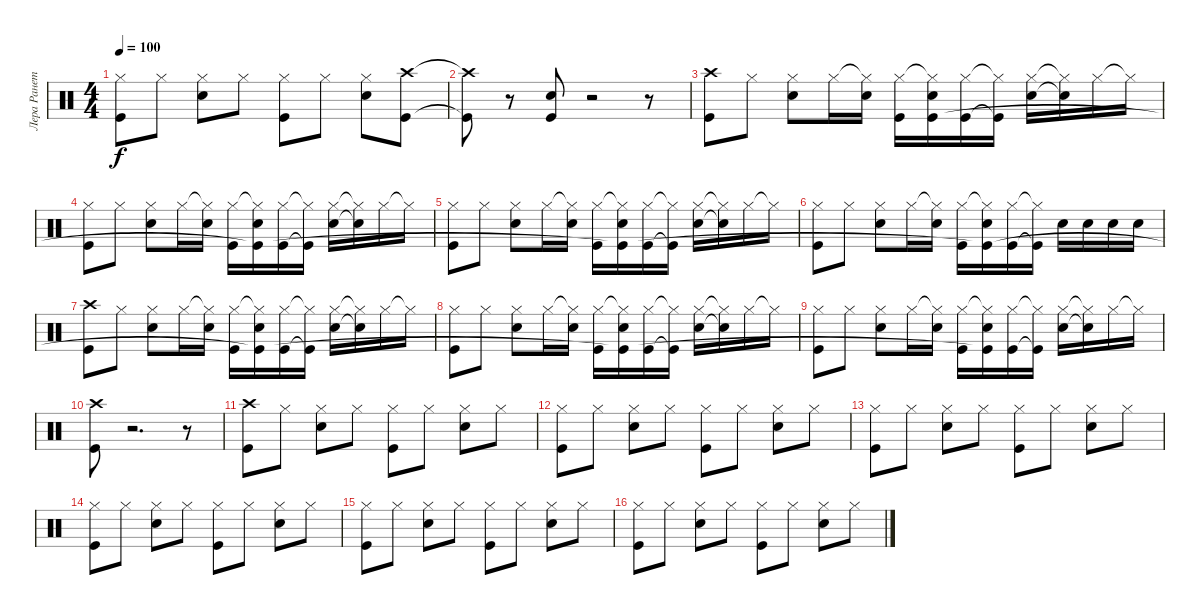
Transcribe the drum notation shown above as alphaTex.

\track ("Лера Ранетка" "Лера Ранет") {instrument percussion}
\staff {score}
\articulation defaults
\ts (4 4)
\tempo 100
\clef neutral
\ks c
("Hi-Hat (closed)" "Kick (hit)").8{dy f} "Hi-Hat (closed)".8 ("Hi-Hat (closed)" "Electric Snare (hit)").8 "Hi-Hat (closed)".8 ("Hi-Hat (closed)" "Kick (hit)").8 "Hi-Hat (closed)".8 ("Hi-Hat (closed)" "Electric Snare (hit)").8 ("Crash high (hit)" "Kick (hit)").8 |
("Crash high (hit)"{t} "Kick (hit)"{t}).8 r.8 ("Electric Snare (hit)" "Kick (hit)").8 r.2 r.8 |
("Crash high (hit)" "Kick (hit)").8 "Hi-Hat (closed)".8 ("Hi-Hat (closed)" "Electric Snare (hit)").8 "Hi-Hat (closed)".16 ("Hi-Hat (closed)"{t} "Electric Snare (hit)").16 ("Hi-Hat (closed)" "Kick (hit)").16 ("Hi-Hat (closed)"{t} "Electric Snare (hit)" "Kick (hit)").16 ("Hi-Hat (closed)" "Kick (hit)").16 ("Hi-Hat (closed)"{t} "Kick (hit)"{t}).16 ("Hi-Hat (closed)" "Electric Snare (hit)").16 ("Hi-Hat (closed)"{t} "Electric Snare (hit)"{t}).16 "Hi-Hat (closed)".16 "Hi-Hat (closed)"{t}.16 |
("Hi-Hat (closed)" "Kick (hit)").8 "Hi-Hat (closed)".8 ("Hi-Hat (closed)" "Electric Snare (hit)").8 "Hi-Hat (closed)".16 ("Hi-Hat (closed)"{t} "Electric Snare (hit)").16 ("Hi-Hat (closed)" "Kick (hit)").16 ("Hi-Hat (closed)"{t} "Electric Snare (hit)" "Kick (hit)"{t}).16 ("Hi-Hat (closed)" "Kick (hit)").16 ("Hi-Hat (closed)"{t} "Kick (hit)"{t}).16 ("Hi-Hat (closed)" "Electric Snare (hit)").16 ("Hi-Hat (closed)"{t} "Electric Snare (hit)"{t}).16 "Hi-Hat (closed)".16 "Hi-Hat (closed)"{t}.16 |
("Hi-Hat (closed)" "Kick (hit)").8 "Hi-Hat (closed)".8 ("Hi-Hat (closed)" "Electric Snare (hit)").8 "Hi-Hat (closed)".16 ("Hi-Hat (closed)"{t} "Electric Snare (hit)").16 ("Hi-Hat (closed)" "Kick (hit)").16 ("Hi-Hat (closed)"{t} "Electric Snare (hit)" "Kick (hit)"{t}).16 ("Hi-Hat (closed)" "Kick (hit)").16 ("Hi-Hat (closed)"{t} "Kick (hit)"{t}).16 ("Hi-Hat (closed)" "Electric Snare (hit)").16 ("Hi-Hat (closed)"{t} "Electric Snare (hit)"{t}).16 "Hi-Hat (closed)".16 "Hi-Hat (closed)"{t}.16 |
("Hi-Hat (closed)" "Kick (hit)").8 "Hi-Hat (closed)".8 ("Hi-Hat (closed)" "Electric Snare (hit)").8 "Hi-Hat (closed)".16 ("Hi-Hat (closed)"{t} "Electric Snare (hit)").16 ("Hi-Hat (closed)" "Kick (hit)").16 ("Hi-Hat (closed)"{t} "Electric Snare (hit)" "Kick (hit)"{t}).16 ("Hi-Hat (closed)" "Kick (hit)").16 ("Hi-Hat (closed)"{t} "Kick (hit)"{t}).16 "Electric Snare (hit)".16 "Electric Snare (hit)".16 "Electric Snare (hit)".16 "Electric Snare (hit)".16 |
("Crash high (hit)" "Kick (hit)").8 "Hi-Hat (closed)".8 ("Hi-Hat (closed)" "Electric Snare (hit)").8 "Hi-Hat (closed)".16 ("Hi-Hat (closed)"{t} "Electric Snare (hit)").16 ("Hi-Hat (closed)" "Kick (hit)").16 ("Hi-Hat (closed)"{t} "Electric Snare (hit)" "Kick (hit)"{t}).16 ("Hi-Hat (closed)" "Kick (hit)").16 ("Hi-Hat (closed)"{t} "Kick (hit)"{t}).16 ("Hi-Hat (closed)" "Electric Snare (hit)").16 ("Hi-Hat (closed)"{t} "Electric Snare (hit)"{t}).16 "Hi-Hat (closed)".16 "Hi-Hat (closed)"{t}.16 |
("Hi-Hat (closed)" "Kick (hit)").8 "Hi-Hat (closed)".8 ("Hi-Hat (closed)" "Electric Snare (hit)").8 "Hi-Hat (closed)".16 ("Hi-Hat (closed)"{t} "Electric Snare (hit)").16 ("Hi-Hat (closed)" "Kick (hit)").16 ("Hi-Hat (closed)"{t} "Electric Snare (hit)" "Kick (hit)"{t}).16 ("Hi-Hat (closed)" "Kick (hit)").16 ("Hi-Hat (closed)"{t} "Kick (hit)"{t}).16 ("Hi-Hat (closed)" "Electric Snare (hit)").16 ("Hi-Hat (closed)"{t} "Electric Snare (hit)"{t}).16 "Hi-Hat (closed)".16 "Hi-Hat (closed)"{t}.16 |
("Hi-Hat (closed)" "Kick (hit)").8 "Hi-Hat (closed)".8 ("Hi-Hat (closed)" "Electric Snare (hit)").8 "Hi-Hat (closed)".16 ("Hi-Hat (closed)"{t} "Electric Snare (hit)").16 ("Hi-Hat (closed)" "Kick (hit)").16 ("Hi-Hat (closed)"{t} "Electric Snare (hit)" "Kick (hit)"{t}).16 ("Hi-Hat (closed)" "Kick (hit)").16 ("Hi-Hat (closed)"{t} "Kick (hit)"{t}).16 ("Hi-Hat (closed)" "Electric Snare (hit)").16 ("Hi-Hat (closed)"{t} "Electric Snare (hit)"{t}).16 "Hi-Hat (closed)".16 "Hi-Hat (closed)"{t}.16 |
("Crash high (hit)" "Kick (hit)").8 r.2{d} r.8 |
("Crash high (hit)" "Kick (hit)").8 "Hi-Hat (closed)".8 ("Hi-Hat (closed)" "Electric Snare (hit)").8 "Hi-Hat (closed)".8 ("Hi-Hat (closed)" "Kick (hit)").8 "Hi-Hat (closed)".8 ("Hi-Hat (closed)" "Electric Snare (hit)").8 "Hi-Hat (closed)".8 |
("Hi-Hat (closed)" "Kick (hit)").8 "Hi-Hat (closed)".8 ("Hi-Hat (closed)" "Electric Snare (hit)").8 "Hi-Hat (closed)".8 ("Hi-Hat (closed)" "Kick (hit)").8 "Hi-Hat (closed)".8 ("Hi-Hat (closed)" "Electric Snare (hit)").8 "Hi-Hat (closed)".8 |
("Hi-Hat (closed)" "Kick (hit)").8 "Hi-Hat (closed)".8 ("Hi-Hat (closed)" "Electric Snare (hit)").8 "Hi-Hat (closed)".8 ("Hi-Hat (closed)" "Kick (hit)").8 "Hi-Hat (closed)".8 ("Hi-Hat (closed)" "Electric Snare (hit)").8 "Hi-Hat (closed)".8 |
("Hi-Hat (closed)" "Kick (hit)").8 "Hi-Hat (closed)".8 ("Hi-Hat (closed)" "Electric Snare (hit)").8 "Hi-Hat (closed)".8 ("Hi-Hat (closed)" "Kick (hit)").8 "Hi-Hat (closed)".8 ("Hi-Hat (closed)" "Electric Snare (hit)").8 "Hi-Hat (closed)".8 |
("Hi-Hat (closed)" "Kick (hit)").8 "Hi-Hat (closed)".8 ("Hi-Hat (closed)" "Electric Snare (hit)").8 "Hi-Hat (closed)".8 ("Hi-Hat (closed)" "Kick (hit)").8 "Hi-Hat (closed)".8 ("Hi-Hat (closed)" "Electric Snare (hit)").8 "Hi-Hat (closed)".8 |
("Hi-Hat (closed)" "Kick (hit)").8 "Hi-Hat (closed)".8 ("Hi-Hat (closed)" "Electric Snare (hit)").8 "Hi-Hat (closed)".8 ("Hi-Hat (closed)" "Kick (hit)").8 "Hi-Hat (closed)".8 ("Hi-Hat (closed)" "Electric Snare (hit)").8 "Hi-Hat (closed)".8
